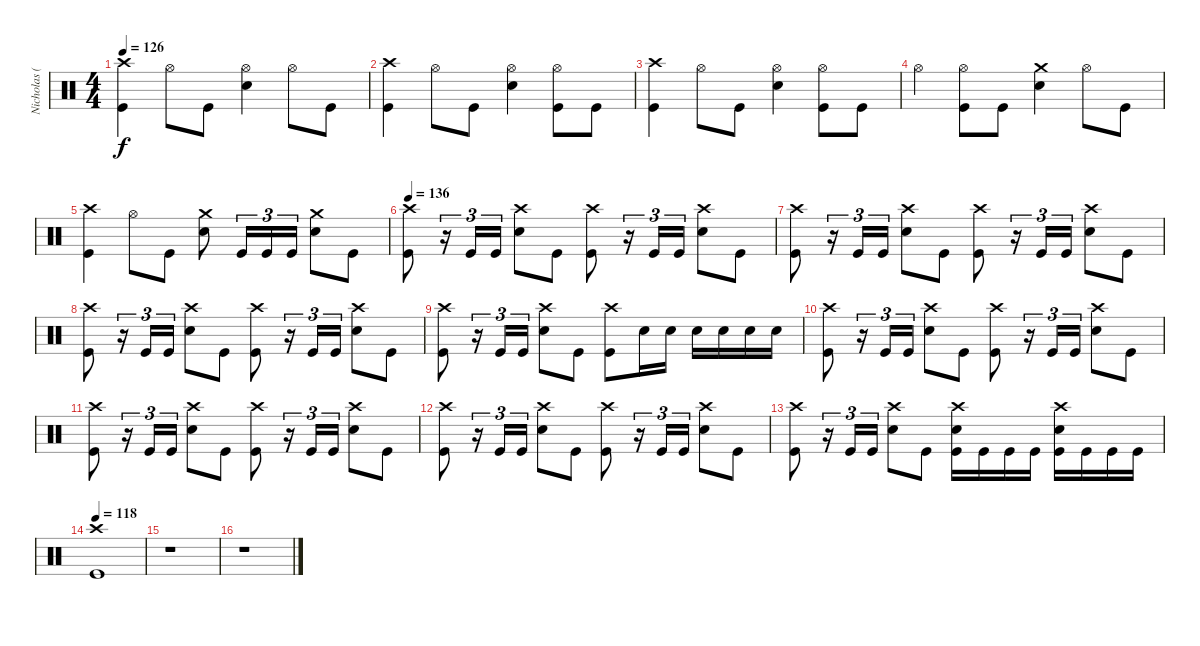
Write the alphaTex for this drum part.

\track ("Nicholas (Drums)" "Nicholas (") {instrument percussion}
\staff {score}
\articulation defaults
\ts (4 4)
\tempo 126
\clef neutral
\ks c
("Crash high (hit)" "Kick (hit)").4{dy f} "Hi-Hat (open)".8 "Kick (hit)".8 ("Hi-Hat (open)" "Electric Snare (hit)").4 "Hi-Hat (open)".8 "Kick (hit)".8 |
("Crash high (hit)" "Kick (hit)").4 "Hi-Hat (open)".8 "Kick (hit)".8 ("Hi-Hat (open)" "Electric Snare (hit)").4 ("Hi-Hat (open)" "Kick (hit)").8 "Kick (hit)".8 |
("Crash high (hit)" "Kick (hit)").4 "Hi-Hat (open)".8 "Kick (hit)".8 ("Hi-Hat (open)" "Electric Snare (hit)").4 ("Hi-Hat (open)" "Kick (hit)").8 "Kick (hit)".8 |
"Hi-Hat (open)".4 ("Hi-Hat (open)" "Kick (hit)").8 "Kick (hit)".8 ("Crash medium (hit)" "Electric Snare (hit)").4 "Hi-Hat (open)".8 "Kick (hit)".8 |
("Crash high (hit)" "Kick (hit)").4 "Hi-Hat (open)".8 "Kick (hit)".8 ("Crash medium (hit)" "Electric Snare (hit)").8 "Kick (hit)".16{tu (3 2)} "Kick (hit)".16{tu (3 2)} "Kick (hit)".16{tu (3 2)} ("Crash medium (hit)" "Electric Snare (hit)").8 "Kick (hit)".8 |
\tempo 136
("Crash high (hit)" "Kick (hit)").8 r.16{tu (3 2)} "Kick (hit)".16{tu (3 2)} "Kick (hit)".16{tu (3 2)} ("Crash high (hit)" "Electric Snare (hit)").8 "Kick (hit)".8 ("Crash high (hit)" "Kick (hit)").8 r.16{tu (3 2)} "Kick (hit)".16{tu (3 2)} "Kick (hit)".16{tu (3 2)} ("Crash high (hit)" "Electric Snare (hit)").8 "Kick (hit)".8 |
("Crash high (hit)" "Kick (hit)").8 r.16{tu (3 2)} "Kick (hit)".16{tu (3 2)} "Kick (hit)".16{tu (3 2)} ("Crash high (hit)" "Electric Snare (hit)").8 "Kick (hit)".8 ("Crash high (hit)" "Kick (hit)").8 r.16{tu (3 2)} "Kick (hit)".16{tu (3 2)} "Kick (hit)".16{tu (3 2)} ("Crash high (hit)" "Electric Snare (hit)").8 "Kick (hit)".8 |
("Crash high (hit)" "Kick (hit)").8 r.16{tu (3 2)} "Kick (hit)".16{tu (3 2)} "Kick (hit)".16{tu (3 2)} ("Crash high (hit)" "Electric Snare (hit)").8 "Kick (hit)".8 ("Crash high (hit)" "Kick (hit)").8 r.16{tu (3 2)} "Kick (hit)".16{tu (3 2)} "Kick (hit)".16{tu (3 2)} ("Crash high (hit)" "Electric Snare (hit)").8 "Kick (hit)".8 |
("Crash high (hit)" "Kick (hit)").8 r.16{tu (3 2)} "Kick (hit)".16{tu (3 2)} "Kick (hit)".16{tu (3 2)} ("Crash high (hit)" "Electric Snare (hit)").8 "Kick (hit)".8 ("Crash high (hit)" "Kick (hit)").8 "Electric Snare (hit)".16 "Electric Snare (hit)".16 "Electric Snare (hit)".16 "Electric Snare (hit)".16 "Electric Snare (hit)".16 "Electric Snare (hit)".16 |
("Crash high (hit)" "Kick (hit)").8 r.16{tu (3 2)} "Kick (hit)".16{tu (3 2)} "Kick (hit)".16{tu (3 2)} ("Crash high (hit)" "Electric Snare (hit)").8 "Kick (hit)".8 ("Crash high (hit)" "Kick (hit)").8 r.16{tu (3 2)} "Kick (hit)".16{tu (3 2)} "Kick (hit)".16{tu (3 2)} ("Crash high (hit)" "Electric Snare (hit)").8 "Kick (hit)".8 |
("Crash high (hit)" "Kick (hit)").8 r.16{tu (3 2)} "Kick (hit)".16{tu (3 2)} "Kick (hit)".16{tu (3 2)} ("Crash high (hit)" "Electric Snare (hit)").8 "Kick (hit)".8 ("Crash high (hit)" "Kick (hit)").8 r.16{tu (3 2)} "Kick (hit)".16{tu (3 2)} "Kick (hit)".16{tu (3 2)} ("Crash high (hit)" "Electric Snare (hit)").8 "Kick (hit)".8 |
("Crash high (hit)" "Kick (hit)").8 r.16{tu (3 2)} "Kick (hit)".16{tu (3 2)} "Kick (hit)".16{tu (3 2)} ("Crash high (hit)" "Electric Snare (hit)").8 "Kick (hit)".8 ("Crash high (hit)" "Kick (hit)").8 r.16{tu (3 2)} "Kick (hit)".16{tu (3 2)} "Kick (hit)".16{tu (3 2)} ("Crash high (hit)" "Electric Snare (hit)").8 "Kick (hit)".8 |
("Crash high (hit)" "Kick (hit)").8 r.16{tu (3 2)} "Kick (hit)".16{tu (3 2)} "Kick (hit)".16{tu (3 2)} ("Crash high (hit)" "Electric Snare (hit)").8 "Kick (hit)".8 ("Crash high (hit)" "Electric Snare (hit)" "Kick (hit)").16 "Kick (hit)".16 "Kick (hit)".16 "Kick (hit)".16 ("Crash high (hit)" "Electric Snare (hit)" "Kick (hit)").16 "Kick (hit)".16 "Kick (hit)".16 "Kick (hit)".16 |
\tempo 118
("Crash high (hit)" "Kick (hit)").1 |
r.1 |
r.1
